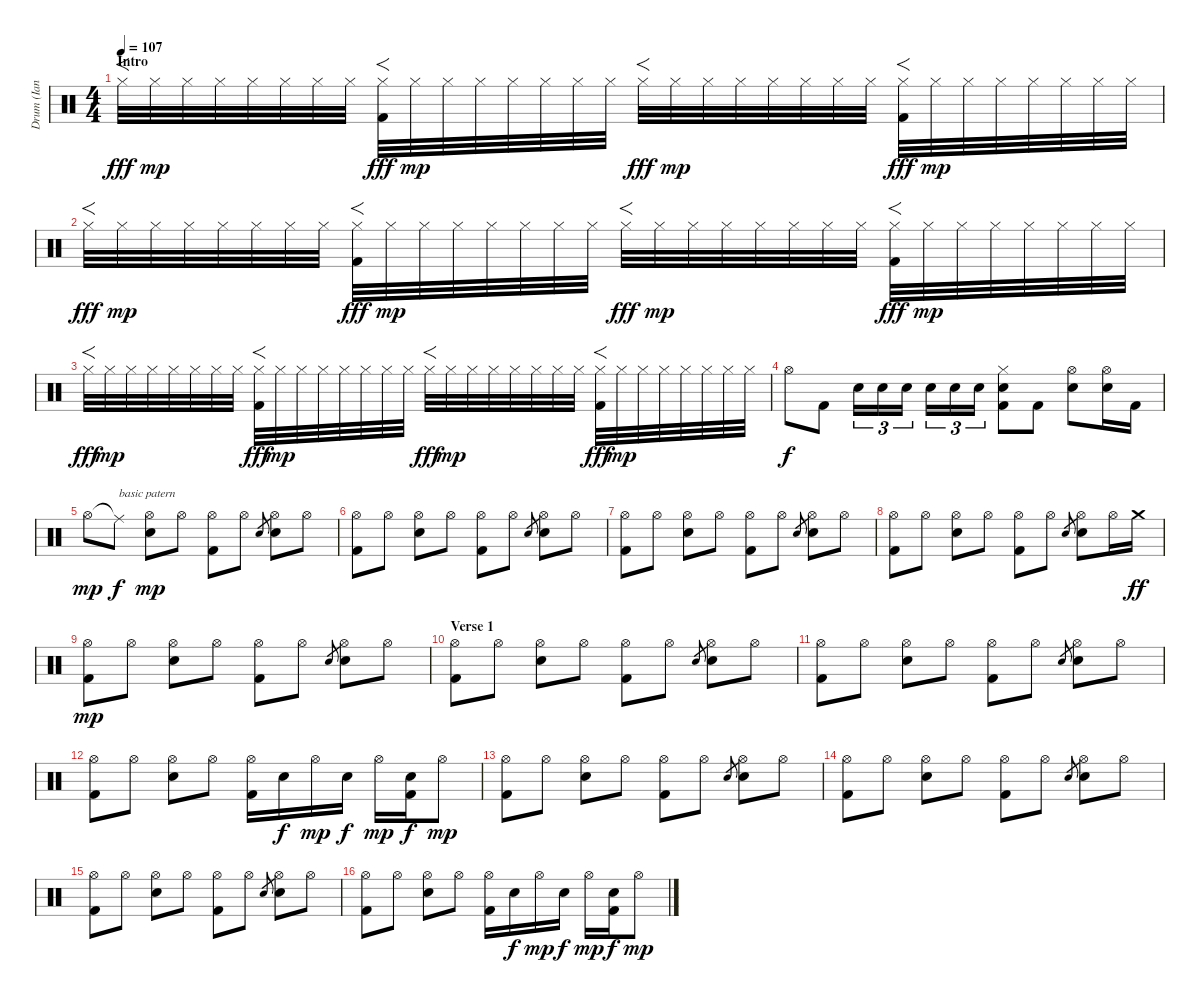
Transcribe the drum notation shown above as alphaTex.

\track ("Drum (Ian Paice)" "Drum (Ian ") {instrument percussion}
\staff {score}
\articulation defaults
\ts (4 4)
\section ("" "Intro")
\tempo 107
\clef neutral
\ks c "Hi-Hat (closed)".32{f dy fff} "Hi-Hat (closed)".32{dy mp} "Hi-Hat (closed)".32 "Hi-Hat (closed)".32 "Hi-Hat (closed)".32 "Hi-Hat (closed)".32 "Hi-Hat (closed)".32 "Hi-Hat (closed)".32
("Hi-Hat (closed)" "Kick (hit) 2").32{f dy fff} "Hi-Hat (closed)".32{dy mp} "Hi-Hat (closed)".32 "Hi-Hat (closed)".32 "Hi-Hat (closed)".32 "Hi-Hat (closed)".32 "Hi-Hat (closed)".32 "Hi-Hat (closed)".32 "Hi-Hat (closed)".32{f dy fff} "Hi-Hat (closed)".32{dy mp} "Hi-Hat (closed)".32 "Hi-Hat (closed)".32 "Hi-Hat (closed)".32 "Hi-Hat (closed)".32 "Hi-Hat (closed)".32 "Hi-Hat (closed)".32 ("Hi-Hat (closed)" "Kick (hit) 2").32{f dy fff} "Hi-Hat (closed)".32{dy mp} "Hi-Hat (closed)".32 "Hi-Hat (closed)".32 "Hi-Hat (closed)".32 "Hi-Hat (closed)".32 "Hi-Hat (closed)".32 "Hi-Hat (closed)".32 |
"Hi-Hat (closed)".32{f dy fff} "Hi-Hat (closed)".32{dy mp} "Hi-Hat (closed)".32 "Hi-Hat (closed)".32 "Hi-Hat (closed)".32 "Hi-Hat (closed)".32 "Hi-Hat (closed)".32 "Hi-Hat (closed)".32 ("Hi-Hat (closed)" "Kick (hit) 2").32{f dy fff} "Hi-Hat (closed)".32{dy mp} "Hi-Hat (closed)".32 "Hi-Hat (closed)".32 "Hi-Hat (closed)".32 "Hi-Hat (closed)".32 "Hi-Hat (closed)".32 "Hi-Hat (closed)".32 "Hi-Hat (closed)".32{f dy fff} "Hi-Hat (closed)".32{dy mp} "Hi-Hat (closed)".32 "Hi-Hat (closed)".32 "Hi-Hat (closed)".32 "Hi-Hat (closed)".32 "Hi-Hat (closed)".32 "Hi-Hat (closed)".32 ("Hi-Hat (closed)" "Kick (hit) 2").32{f dy fff} "Hi-Hat (closed)".32{dy mp} "Hi-Hat (closed)".32 "Hi-Hat (closed)".32 "Hi-Hat (closed)".32 "Hi-Hat (closed)".32 "Hi-Hat (closed)".32 "Hi-Hat (closed)".32 |
"Hi-Hat (closed)".32{f dy fff} "Hi-Hat (closed)".32{dy mp} "Hi-Hat (closed)".32 "Hi-Hat (closed)".32 "Hi-Hat (closed)".32 "Hi-Hat (closed)".32 "Hi-Hat (closed)".32 "Hi-Hat (closed)".32 ("Hi-Hat (closed)" "Kick (hit) 2").32{f dy fff} "Hi-Hat (closed)".32{dy mp} "Hi-Hat (closed)".32 "Hi-Hat (closed)".32 "Hi-Hat (closed)".32 "Hi-Hat (closed)".32 "Hi-Hat (closed)".32 "Hi-Hat (closed)".32 "Hi-Hat (closed)".32{f dy fff} "Hi-Hat (closed)".32{dy mp} "Hi-Hat (closed)".32 "Hi-Hat (closed)".32 "Hi-Hat (closed)".32 "Hi-Hat (closed)".32 "Hi-Hat (closed)".32 "Hi-Hat (closed)".32 ("Hi-Hat (closed)" "Kick (hit) 2").32{f dy fff} "Hi-Hat (closed)".32{dy mp} "Hi-Hat (closed)".32 "Hi-Hat (closed)".32 "Hi-Hat (closed)".32 "Hi-Hat (closed)".32 "Hi-Hat (closed)".32 "Hi-Hat (closed)".32 |
"Hi-Hat (open)".8{dy f} "Kick (hit) 2".8 "Snare (hit) 2".16{tu (3 2)} "Snare (hit) 2".16{tu (3 2)} "Snare (hit) 2".16{tu (3 2)} "Snare (hit) 2".16{tu (3 2)} "Snare (hit) 2".16{tu (3 2)} "Snare (hit) 2".16{tu (3 2)} ("Hi-Hat (closed)" "Snare (hit) 2" "Kick (hit) 2").8 "Kick (hit) 2".8 ("Hi-Hat (open)" "Snare (hit) 2").8 ("Hi-Hat (open)" "Snare (hit) 2").16 "Kick (hit) 2".16 |
"Hi-Hat (open)".8{dy mp} "Ride (middle)"{t}.8{txt "basic patern" dy f} ("Hi-Hat (open)" "Snare (hit) 2").8{dy mp} "Hi-Hat (open)".8 ("Hi-Hat (open)" "Kick (hit) 2").8 "Hi-Hat (open)".8 "Snare (hit) 2".8{gr} ("Hi-Hat (open)" "Snare (hit) 2").8 "Hi-Hat (open)".8 |
("Hi-Hat (open)" "Kick (hit) 2").8 "Hi-Hat (open)".8 ("Hi-Hat (open)" "Snare (hit) 2").8 "Hi-Hat (open)".8 ("Hi-Hat (open)" "Kick (hit) 2").8 "Hi-Hat (open)".8 "Snare (hit) 2".8{gr} ("Hi-Hat (open)" "Snare (hit) 2").8 "Hi-Hat (open)".8 |
("Hi-Hat (open)" "Kick (hit) 2").8 "Hi-Hat (open)".8 ("Hi-Hat (open)" "Snare (hit) 2").8 "Hi-Hat (open)".8 ("Hi-Hat (open)" "Kick (hit) 2").8 "Hi-Hat (open)".8 "Snare (hit) 2".8{gr} ("Hi-Hat (open)" "Snare (hit) 2").8 "Hi-Hat (open)".8 |
("Hi-Hat (open)" "Kick (hit) 2").8 "Hi-Hat (open)".8 ("Hi-Hat (open)" "Snare (hit) 2").8 "Hi-Hat (open)".8 ("Hi-Hat (open)" "Kick (hit) 2").8 "Hi-Hat (open)".8 "Snare (hit) 2".8{gr} ("Hi-Hat (open)" "Snare (hit) 2").8 "Hi-Hat (open)".16 "Crash medium (hit)".16{dy ff} |
("Hi-Hat (open)" "Kick (hit) 2").8{dy mp} "Hi-Hat (open)".8 ("Hi-Hat (open)" "Snare (hit) 2").8 "Hi-Hat (open)".8 ("Hi-Hat (open)" "Kick (hit) 2").8 "Hi-Hat (open)".8 "Snare (hit) 2".8{gr} ("Hi-Hat (open)" "Snare (hit) 2").8 "Hi-Hat (open)".8 |
\section ("" "Verse 1")
("Hi-Hat (open)" "Kick (hit) 2").8 "Hi-Hat (open)".8 ("Hi-Hat (open)" "Snare (hit) 2").8 "Hi-Hat (open)".8 ("Hi-Hat (open)" "Kick (hit) 2").8 "Hi-Hat (open)".8 "Snare (hit) 2".8{gr} ("Hi-Hat (open)" "Snare (hit) 2").8 "Hi-Hat (open)".8 |
("Hi-Hat (open)" "Kick (hit) 2").8 "Hi-Hat (open)".8 ("Hi-Hat (open)" "Snare (hit) 2").8 "Hi-Hat (open)".8 ("Hi-Hat (open)" "Kick (hit) 2").8 "Hi-Hat (open)".8 "Snare (hit) 2".8{gr} ("Hi-Hat (open)" "Snare (hit) 2").8 "Hi-Hat (open)".8 |
("Hi-Hat (open)" "Kick (hit) 2").8 "Hi-Hat (open)".8 ("Hi-Hat (open)" "Snare (hit) 2").8 "Hi-Hat (open)".8 ("Hi-Hat (open)" "Kick (hit) 2").16 "Snare (hit) 2".16{dy f} "Hi-Hat (open)".16{dy mp} "Snare (hit) 2".16{dy f} "Hi-Hat (open)".16{dy mp} ("Snare (hit) 2" "Kick (hit) 2").16{dy f} "Hi-Hat (open)".8{dy mp} |
("Hi-Hat (open)" "Kick (hit) 2").8 "Hi-Hat (open)".8 ("Hi-Hat (open)" "Snare (hit) 2").8 "Hi-Hat (open)".8 ("Hi-Hat (open)" "Kick (hit) 2").8 "Hi-Hat (open)".8 "Snare (hit) 2".8{gr} ("Hi-Hat (open)" "Snare (hit) 2").8 "Hi-Hat (open)".8 |
("Hi-Hat (open)" "Kick (hit) 2").8 "Hi-Hat (open)".8 ("Hi-Hat (open)" "Snare (hit) 2").8 "Hi-Hat (open)".8 ("Hi-Hat (open)" "Kick (hit) 2").8 "Hi-Hat (open)".8 "Snare (hit) 2".8{gr} ("Hi-Hat (open)" "Snare (hit) 2").8 "Hi-Hat (open)".8 |
("Hi-Hat (open)" "Kick (hit) 2").8 "Hi-Hat (open)".8 ("Hi-Hat (open)" "Snare (hit) 2").8 "Hi-Hat (open)".8 ("Hi-Hat (open)" "Kick (hit) 2").8 "Hi-Hat (open)".8 "Snare (hit) 2".8{gr} ("Hi-Hat (open)" "Snare (hit) 2").8 "Hi-Hat (open)".8 |
("Hi-Hat (open)" "Kick (hit) 2").8 "Hi-Hat (open)".8 ("Hi-Hat (open)" "Snare (hit) 2").8 "Hi-Hat (open)".8 ("Hi-Hat (open)" "Kick (hit) 2").16 "Snare (hit) 2".16{dy f} "Hi-Hat (open)".16{dy mp} "Snare (hit) 2".16{dy f} "Hi-Hat (open)".16{dy mp} ("Snare (hit) 2" "Kick (hit) 2").16{dy f} "Hi-Hat (open)".8{dy mp}
